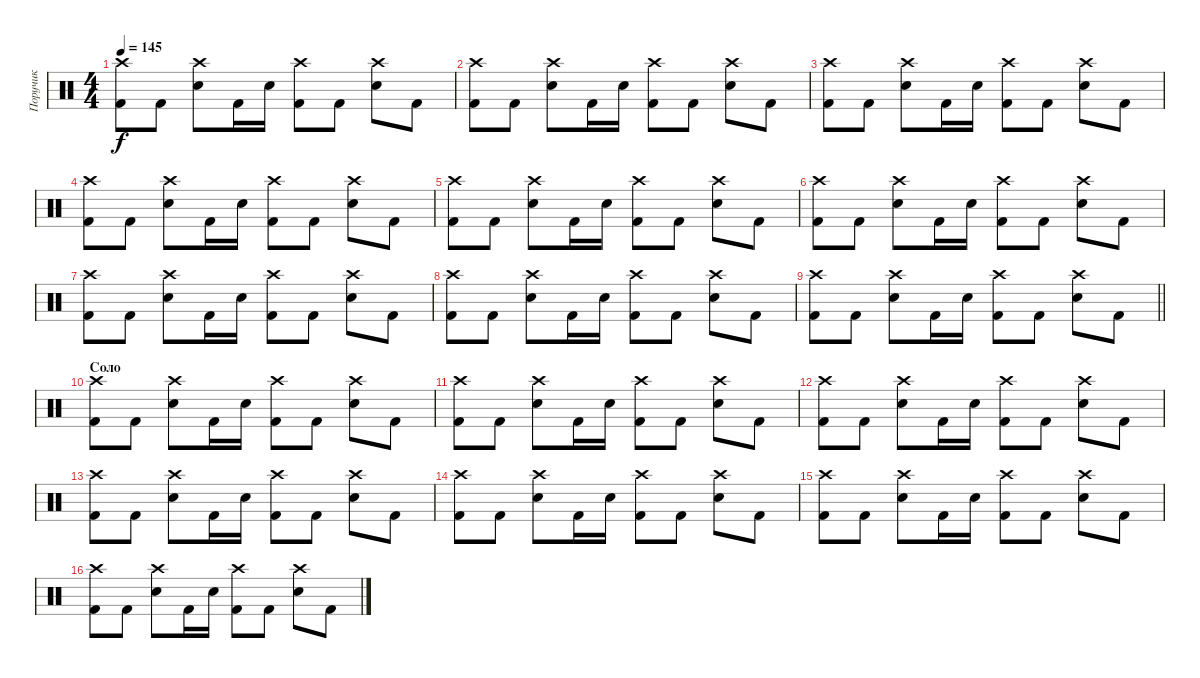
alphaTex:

\track ("Поручик" "Поручик") {instrument percussion}
\staff {score}
\articulation defaults
\ts (4 4)
\tempo 145
\clef neutral
\ks c
("Crash high (hit)" "Kick (hit) 2").8{dy f} "Kick (hit) 2".8 ("Crash high (hit)" "Electric Snare (hit)").8 "Kick (hit) 2".16 "Electric Snare (hit)".16 ("Crash high (hit)" "Kick (hit) 2").8 "Kick (hit) 2".8 ("Crash high (hit)" "Electric Snare (hit)").8 "Kick (hit) 2".8 |
("Crash high (hit)" "Kick (hit) 2").8 "Kick (hit) 2".8 ("Crash high (hit)" "Electric Snare (hit)").8 "Kick (hit) 2".16 "Electric Snare (hit)".16 ("Crash high (hit)" "Kick (hit) 2").8 "Kick (hit) 2".8 ("Crash high (hit)" "Electric Snare (hit)").8 "Kick (hit) 2".8 |
("Crash high (hit)" "Kick (hit) 2").8 "Kick (hit) 2".8 ("Crash high (hit)" "Electric Snare (hit)").8 "Kick (hit) 2".16 "Electric Snare (hit)".16 ("Crash high (hit)" "Kick (hit) 2").8 "Kick (hit) 2".8 ("Crash high (hit)" "Electric Snare (hit)").8 "Kick (hit) 2".8 |
("Crash high (hit)" "Kick (hit) 2").8 "Kick (hit) 2".8 ("Crash high (hit)" "Electric Snare (hit)").8 "Kick (hit) 2".16 "Electric Snare (hit)".16 ("Crash high (hit)" "Kick (hit) 2").8 "Kick (hit) 2".8 ("Crash high (hit)" "Electric Snare (hit)").8 "Kick (hit) 2".8 |
("Crash high (hit)" "Kick (hit) 2").8 "Kick (hit) 2".8 ("Crash high (hit)" "Electric Snare (hit)").8 "Kick (hit) 2".16 "Electric Snare (hit)".16 ("Crash high (hit)" "Kick (hit) 2").8 "Kick (hit) 2".8 ("Crash high (hit)" "Electric Snare (hit)").8 "Kick (hit) 2".8 |
("Crash high (hit)" "Kick (hit) 2").8 "Kick (hit) 2".8 ("Crash high (hit)" "Electric Snare (hit)").8 "Kick (hit) 2".16 "Electric Snare (hit)".16 ("Crash high (hit)" "Kick (hit) 2").8 "Kick (hit) 2".8 ("Crash high (hit)" "Electric Snare (hit)").8 "Kick (hit) 2".8 |
("Crash high (hit)" "Kick (hit) 2").8 "Kick (hit) 2".8 ("Crash high (hit)" "Electric Snare (hit)").8 "Kick (hit) 2".16 "Electric Snare (hit)".16 ("Crash high (hit)" "Kick (hit) 2").8 "Kick (hit) 2".8 ("Crash high (hit)" "Electric Snare (hit)").8 "Kick (hit) 2".8 |
("Crash high (hit)" "Kick (hit) 2").8 "Kick (hit) 2".8 ("Crash high (hit)" "Electric Snare (hit)").8 "Kick (hit) 2".16 "Electric Snare (hit)".16 ("Crash high (hit)" "Kick (hit) 2").8 "Kick (hit) 2".8 ("Crash high (hit)" "Electric Snare (hit)").8 "Kick (hit) 2".8 |
\barLineRight lightlight
("Crash high (hit)" "Kick (hit) 2").8 "Kick (hit) 2".8 ("Crash high (hit)" "Electric Snare (hit)").8 "Kick (hit) 2".16 "Electric Snare (hit)".16 ("Crash high (hit)" "Kick (hit) 2").8 "Kick (hit) 2".8 ("Crash high (hit)" "Electric Snare (hit)").8 "Kick (hit) 2".8 |
\section ("" "Соло")
("Crash high (hit)" "Kick (hit) 2").8 "Kick (hit) 2".8 ("Crash high (hit)" "Electric Snare (hit)").8 "Kick (hit) 2".16 "Electric Snare (hit)".16 ("Crash high (hit)" "Kick (hit) 2").8 "Kick (hit) 2".8 ("Crash high (hit)" "Electric Snare (hit)").8 "Kick (hit) 2".8 |
("Crash high (hit)" "Kick (hit) 2").8 "Kick (hit) 2".8 ("Crash high (hit)" "Electric Snare (hit)").8 "Kick (hit) 2".16 "Electric Snare (hit)".16 ("Crash high (hit)" "Kick (hit) 2").8 "Kick (hit) 2".8 ("Crash high (hit)" "Electric Snare (hit)").8 "Kick (hit) 2".8 |
("Crash high (hit)" "Kick (hit) 2").8 "Kick (hit) 2".8 ("Crash high (hit)" "Electric Snare (hit)").8 "Kick (hit) 2".16 "Electric Snare (hit)".16 ("Crash high (hit)" "Kick (hit) 2").8 "Kick (hit) 2".8 ("Crash high (hit)" "Electric Snare (hit)").8 "Kick (hit) 2".8 |
("Crash high (hit)" "Kick (hit) 2").8 "Kick (hit) 2".8 ("Crash high (hit)" "Electric Snare (hit)").8 "Kick (hit) 2".16 "Electric Snare (hit)".16 ("Crash high (hit)" "Kick (hit) 2").8 "Kick (hit) 2".8 ("Crash high (hit)" "Electric Snare (hit)").8 "Kick (hit) 2".8 |
("Crash high (hit)" "Kick (hit) 2").8 "Kick (hit) 2".8 ("Crash high (hit)" "Electric Snare (hit)").8 "Kick (hit) 2".16 "Electric Snare (hit)".16 ("Crash high (hit)" "Kick (hit) 2").8 "Kick (hit) 2".8 ("Crash high (hit)" "Electric Snare (hit)").8 "Kick (hit) 2".8 |
("Crash high (hit)" "Kick (hit) 2").8 "Kick (hit) 2".8 ("Crash high (hit)" "Electric Snare (hit)").8 "Kick (hit) 2".16 "Electric Snare (hit)".16 ("Crash high (hit)" "Kick (hit) 2").8 "Kick (hit) 2".8 ("Crash high (hit)" "Electric Snare (hit)").8 "Kick (hit) 2".8 |
("Crash high (hit)" "Kick (hit) 2").8 "Kick (hit) 2".8 ("Crash high (hit)" "Electric Snare (hit)").8 "Kick (hit) 2".16 "Electric Snare (hit)".16 ("Crash high (hit)" "Kick (hit) 2").8 "Kick (hit) 2".8 ("Crash high (hit)" "Electric Snare (hit)").8 "Kick (hit) 2".8
